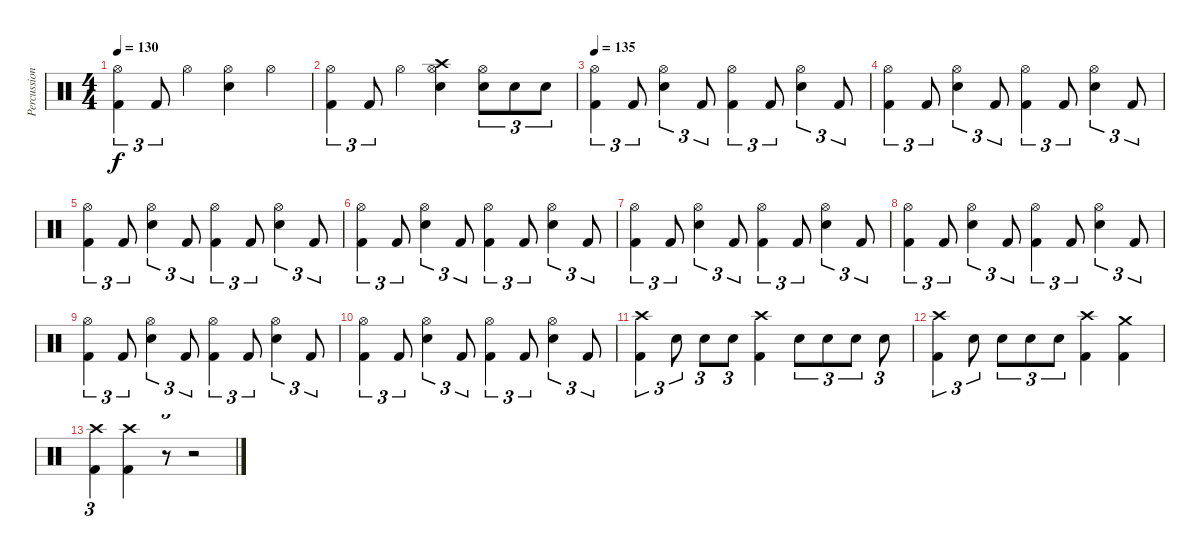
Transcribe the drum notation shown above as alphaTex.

\track ("Percussion" "Percussion") {instrument percussion}
\staff {score}
\articulation defaults
\ts (4 4)
\tempo 130
\clef neutral
\ks c
("Hi-Hat (open)" "Kick (hit) 2").4{tu (3 2) dy f} "Kick (hit) 2".8{tu (3 2)} "Hi-Hat (open)".4 ("Hi-Hat (open)" "Snare (hit) 2").4 "Hi-Hat (open)".4 |
("Hi-Hat (open)" "Kick (hit) 2").4{tu (3 2)} "Kick (hit) 2".8{tu (3 2)} "Hi-Hat (open)".4 ("Crash high (hit)" "Hi-Hat (open)" "Snare (hit) 2").4 ("Hi-Hat (open)" "Snare (hit) 2").8{tu (3 2)} "Snare (hit) 2".8{tu (3 2)} "Snare (hit) 2".8{tu (3 2)} |
\tempo 135
("Hi-Hat (open)" "Kick (hit) 2").4{tu (3 2)} "Kick (hit) 2".8{tu (3 2)} ("Hi-Hat (open)" "Snare (hit) 2").4{tu (3 2)} "Kick (hit) 2".8{tu (3 2)} ("Hi-Hat (open)" "Kick (hit) 2").4{tu (3 2)} "Kick (hit) 2".8{tu (3 2)} ("Hi-Hat (open)" "Snare (hit) 2").4{tu (3 2)} "Kick (hit) 2".8{tu (3 2)} |
("Hi-Hat (open)" "Kick (hit) 2").4{tu (3 2)} "Kick (hit) 2".8{tu (3 2)} ("Hi-Hat (open)" "Snare (hit) 2").4{tu (3 2)} "Kick (hit) 2".8{tu (3 2)} ("Hi-Hat (open)" "Kick (hit) 2").4{tu (3 2)} "Kick (hit) 2".8{tu (3 2)} ("Hi-Hat (open)" "Snare (hit) 2").4{tu (3 2)} "Kick (hit) 2".8{tu (3 2)} |
("Hi-Hat (open)" "Kick (hit) 2").4{tu (3 2)} "Kick (hit) 2".8{tu (3 2)} ("Hi-Hat (open)" "Snare (hit) 2").4{tu (3 2)} "Kick (hit) 2".8{tu (3 2)} ("Hi-Hat (open)" "Kick (hit) 2").4{tu (3 2)} "Kick (hit) 2".8{tu (3 2)} ("Hi-Hat (open)" "Snare (hit) 2").4{tu (3 2)} "Kick (hit) 2".8{tu (3 2)} |
("Hi-Hat (open)" "Kick (hit) 2").4{tu (3 2)} "Kick (hit) 2".8{tu (3 2)} ("Hi-Hat (open)" "Snare (hit) 2").4{tu (3 2)} "Kick (hit) 2".8{tu (3 2)} ("Hi-Hat (open)" "Kick (hit) 2").4{tu (3 2)} "Kick (hit) 2".8{tu (3 2)} ("Hi-Hat (open)" "Snare (hit) 2").4{tu (3 2)} "Kick (hit) 2".8{tu (3 2)} |
("Hi-Hat (open)" "Kick (hit) 2").4{tu (3 2)} "Kick (hit) 2".8{tu (3 2)} ("Hi-Hat (open)" "Snare (hit) 2").4{tu (3 2)} "Kick (hit) 2".8{tu (3 2)} ("Hi-Hat (open)" "Kick (hit) 2").4{tu (3 2)} "Kick (hit) 2".8{tu (3 2)} ("Hi-Hat (open)" "Snare (hit) 2").4{tu (3 2)} "Kick (hit) 2".8{tu (3 2)} |
("Hi-Hat (open)" "Kick (hit) 2").4{tu (3 2)} "Kick (hit) 2".8{tu (3 2)} ("Hi-Hat (open)" "Snare (hit) 2").4{tu (3 2)} "Kick (hit) 2".8{tu (3 2)} ("Hi-Hat (open)" "Kick (hit) 2").4{tu (3 2)} "Kick (hit) 2".8{tu (3 2)} ("Hi-Hat (open)" "Snare (hit) 2").4{tu (3 2)} "Kick (hit) 2".8{tu (3 2)} |
("Hi-Hat (open)" "Kick (hit) 2").4{tu (3 2)} "Kick (hit) 2".8{tu (3 2)} ("Hi-Hat (open)" "Snare (hit) 2").4{tu (3 2)} "Kick (hit) 2".8{tu (3 2)} ("Hi-Hat (open)" "Kick (hit) 2").4{tu (3 2)} "Kick (hit) 2".8{tu (3 2)} ("Hi-Hat (open)" "Snare (hit) 2").4{tu (3 2)} "Kick (hit) 2".8{tu (3 2)} |
("Hi-Hat (open)" "Kick (hit) 2").4{tu (3 2)} "Kick (hit) 2".8{tu (3 2)} ("Hi-Hat (open)" "Snare (hit) 2").4{tu (3 2)} "Kick (hit) 2".8{tu (3 2)} ("Hi-Hat (open)" "Kick (hit) 2").4{tu (3 2)} "Kick (hit) 2".8{tu (3 2)} ("Hi-Hat (open)" "Snare (hit) 2").4{tu (3 2)} "Kick (hit) 2".8{tu (3 2)} |
("Crash high (hit)" "Kick (hit) 2").4{tu (3 2)} "Snare (hit) 2".8{tu (3 2)} "Snare (hit) 2".8{tu (3 2)} "Snare (hit) 2".8{tu (3 2)} ("Crash high (hit)" "Kick (hit) 2").4 "Snare (hit) 2".8{tu (3 2)} "Snare (hit) 2".8{tu (3 2)} "Snare (hit) 2".8{tu (3 2)} "Snare (hit) 2".8{tu (3 2)} |
("Crash high (hit)" "Kick (hit) 2").4{tu (3 2)} "Snare (hit) 2".8{tu (3 2)} "Snare (hit) 2".8{tu (3 2)} "Snare (hit) 2".8{tu (3 2)} "Snare (hit) 2".8{tu (3 2)} ("Crash high (hit)" "Kick (hit) 2").4 ("Crash medium (hit)" "Kick (hit) 2").4 |
("Crash high (hit)" "Kick (hit) 2").4{tu (3 2)} ("Crash high (hit)" "Kick (hit) 2").4 r.8{tu (3 2)} r.2
